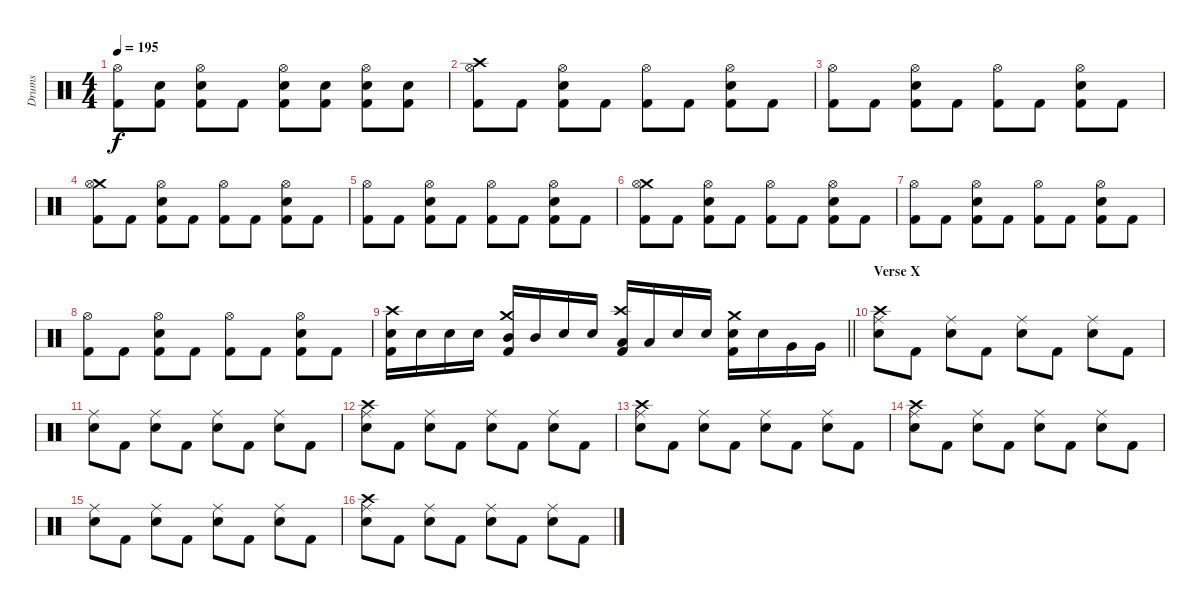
\track ("Drums" "Drums") {instrument percussion}
\staff {score}
\articulation defaults
\ts (4 4)
\tempo 195
\clef neutral
\ks c
("Hi-Hat (open)" "Kick (hit) 2").8{dy f} ("Snare (hit) 2" "Kick (hit) 2").8 ("Hi-Hat (open)" "Snare (hit) 2" "Kick (hit) 2").8 "Kick (hit) 2".8 ("Hi-Hat (open)" "Snare (hit) 2" "Kick (hit) 2").8 ("Snare (hit) 2" "Kick (hit) 2").8 ("Hi-Hat (open)" "Snare (hit) 2" "Kick (hit) 2").8 ("Snare (hit) 2" "Kick (hit) 2").8 |
("Crash high (hit)" "Hi-Hat (open)" "Kick (hit) 2").8 "Kick (hit) 2".8 ("Hi-Hat (open)" "Snare (hit) 2" "Kick (hit) 2").8 "Kick (hit) 2".8 ("Hi-Hat (open)" "Kick (hit) 2").8 "Kick (hit) 2".8 ("Hi-Hat (open)" "Snare (hit) 2" "Kick (hit) 2").8 "Kick (hit) 2".8 |
("Hi-Hat (open)" "Kick (hit) 2").8 "Kick (hit) 2".8 ("Hi-Hat (open)" "Snare (hit) 2" "Kick (hit) 2").8 "Kick (hit) 2".8 ("Hi-Hat (open)" "Kick (hit) 2").8 "Kick (hit) 2".8 ("Hi-Hat (open)" "Snare (hit) 2" "Kick (hit) 2").8 "Kick (hit) 2".8 |
("Crash medium (hit)" "Hi-Hat (open)" "Kick (hit) 2").8 "Kick (hit) 2".8 ("Hi-Hat (open)" "Snare (hit) 2" "Kick (hit) 2").8 "Kick (hit) 2".8 ("Hi-Hat (open)" "Kick (hit) 2").8 "Kick (hit) 2".8 ("Hi-Hat (open)" "Snare (hit) 2" "Kick (hit) 2").8 "Kick (hit) 2".8 |
("Hi-Hat (open)" "Kick (hit) 2").8 "Kick (hit) 2".8 ("Hi-Hat (open)" "Snare (hit) 2" "Kick (hit) 2").8 "Kick (hit) 2".8 ("Hi-Hat (open)" "Kick (hit) 2").8 "Kick (hit) 2".8 ("Hi-Hat (open)" "Snare (hit) 2" "Kick (hit) 2").8 "Kick (hit) 2".8 |
("Crash medium (hit)" "Hi-Hat (open)" "Kick (hit) 2").8 "Kick (hit) 2".8 ("Hi-Hat (open)" "Snare (hit) 2" "Kick (hit) 2").8 "Kick (hit) 2".8 ("Hi-Hat (open)" "Kick (hit) 2").8 "Kick (hit) 2".8 ("Hi-Hat (open)" "Snare (hit) 2" "Kick (hit) 2").8 "Kick (hit) 2".8 |
("Hi-Hat (open)" "Kick (hit) 2").8 "Kick (hit) 2".8 ("Hi-Hat (open)" "Snare (hit) 2" "Kick (hit) 2").8 "Kick (hit) 2".8 ("Hi-Hat (open)" "Kick (hit) 2").8 "Kick (hit) 2".8 ("Hi-Hat (open)" "Snare (hit) 2" "Kick (hit) 2").8 "Kick (hit) 2".8 |
("Hi-Hat (open)" "Kick (hit) 2").8 "Kick (hit) 2".8 ("Hi-Hat (open)" "Snare (hit) 2" "Kick (hit) 2").8 "Kick (hit) 2".8 ("Hi-Hat (open)" "Kick (hit) 2").8 "Kick (hit) 2".8 ("Hi-Hat (open)" "Snare (hit) 2" "Kick (hit) 2").8 "Kick (hit) 2".8 |
\barLineRight lightlight
("Crash high (hit)" "Snare (hit) 2" "Kick (hit) 2").16 "Snare (hit) 2".16 "Snare (hit) 2".16 "Snare (hit) 2".16 ("Crash medium (hit)" "Mid Tom (hit)" "Kick (hit) 2").16 "Mid Tom (hit)".16 "Snare (hit) 2".16 "Snare (hit) 2".16 ("Crash high (hit)" "Low Tom (hit)" "Kick (hit) 2").16 "Low Tom (hit)".16 "Snare (hit) 2".16 "Snare (hit) 2".16 ("Crash medium (hit)" "Snare (hit) 2" "Kick (hit) 2").16 "Snare (hit) 2".16 "Very Low Tom (hit)".16 "Very Low Tom (hit)".16 |
\section ("" "Verse X")
("Crash high (hit)" "Ride (middle)" "Snare (hit) 2").8 "Kick (hit) 2".8 ("Ride (middle)" "Snare (hit) 2").8 "Kick (hit) 2".8 ("Ride (middle)" "Snare (hit) 2").8 "Kick (hit) 2".8 ("Ride (middle)" "Snare (hit) 2").8 "Kick (hit) 2".8 |
("Ride (middle)" "Snare (hit) 2").8 "Kick (hit) 2".8 ("Ride (middle)" "Snare (hit) 2").8 "Kick (hit) 2".8 ("Ride (middle)" "Snare (hit) 2").8 "Kick (hit) 2".8 ("Ride (middle)" "Snare (hit) 2").8 "Kick (hit) 2".8 |
("Crash high (hit)" "Ride (middle)" "Snare (hit) 2").8 "Kick (hit) 2".8 ("Ride (middle)" "Snare (hit) 2").8 "Kick (hit) 2".8 ("Ride (middle)" "Snare (hit) 2").8 "Kick (hit) 2".8 ("Ride (middle)" "Snare (hit) 2").8 "Kick (hit) 2".8 |
("Crash high (hit)" "Ride (middle)" "Snare (hit) 2").8 "Kick (hit) 2".8 ("Ride (middle)" "Snare (hit) 2").8 "Kick (hit) 2".8 ("Ride (middle)" "Snare (hit) 2").8 "Kick (hit) 2".8 ("Ride (middle)" "Snare (hit) 2").8 "Kick (hit) 2".8 |
("Crash high (hit)" "Ride (middle)" "Snare (hit) 2").8 "Kick (hit) 2".8 ("Ride (middle)" "Snare (hit) 2").8 "Kick (hit) 2".8 ("Ride (middle)" "Snare (hit) 2").8 "Kick (hit) 2".8 ("Ride (middle)" "Snare (hit) 2").8 "Kick (hit) 2".8 |
("Ride (middle)" "Snare (hit) 2").8 "Kick (hit) 2".8 ("Ride (middle)" "Snare (hit) 2").8 "Kick (hit) 2".8 ("Ride (middle)" "Snare (hit) 2").8 "Kick (hit) 2".8 ("Ride (middle)" "Snare (hit) 2").8 "Kick (hit) 2".8 |
("Crash high (hit)" "Ride (middle)" "Snare (hit) 2").8 "Kick (hit) 2".8 ("Ride (middle)" "Snare (hit) 2").8 "Kick (hit) 2".8 ("Ride (middle)" "Snare (hit) 2").8 "Kick (hit) 2".8 ("Ride (middle)" "Snare (hit) 2").8 "Kick (hit) 2".8
